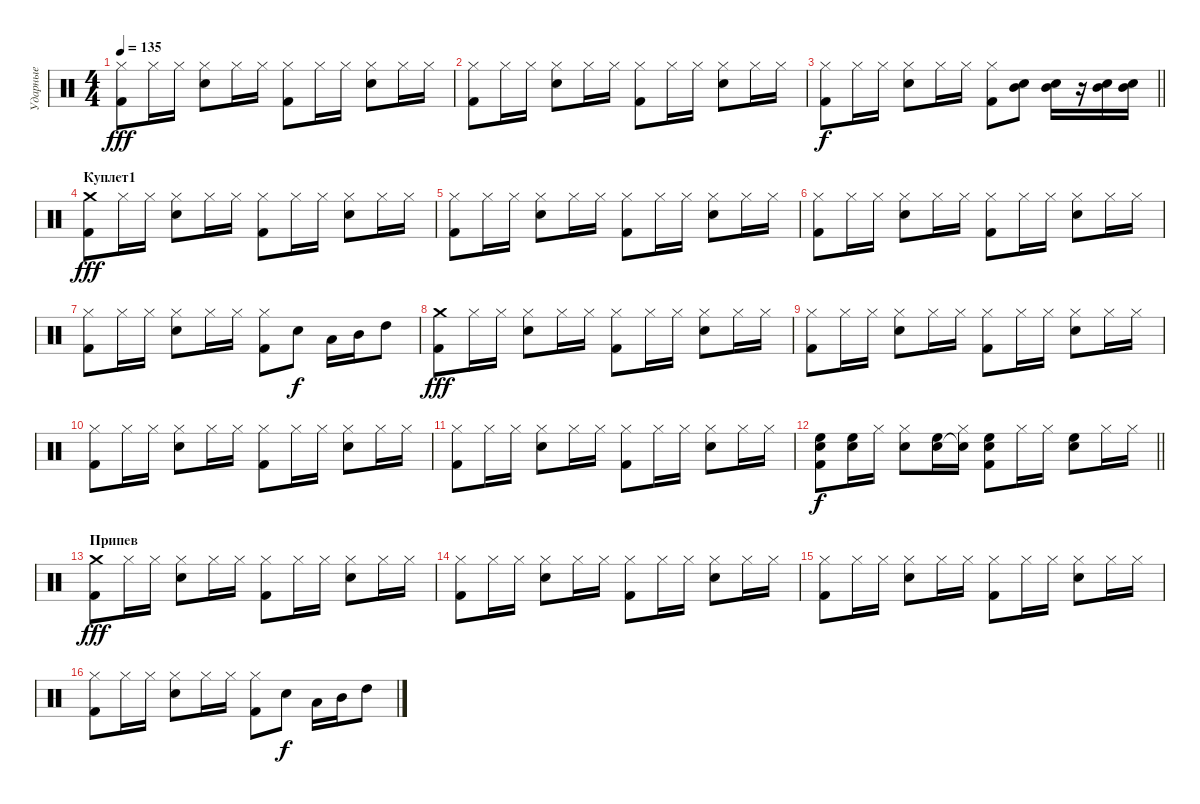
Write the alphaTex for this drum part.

\track ("Ударные" "Ударные") {instrument percussion}
\staff {score}
\articulation defaults
\ts (4 4)
\tempo 135
\clef neutral
\ks c
("Hi-Hat (closed)" "Kick (hit) 2").8{dy fff} "Hi-Hat (closed)".16 "Hi-Hat (closed)".16 ("Hi-Hat (closed)" "Electric Snare (hit)").8 "Hi-Hat (closed)".16 "Hi-Hat (closed)".16 ("Hi-Hat (closed)" "Kick (hit) 2").8 "Hi-Hat (closed)".16 "Hi-Hat (closed)".16 ("Hi-Hat (closed)" "Electric Snare (hit)").8 "Hi-Hat (closed)".16 "Hi-Hat (closed)".16 |
("Hi-Hat (closed)" "Kick (hit) 2").8 "Hi-Hat (closed)".16 "Hi-Hat (closed)".16 ("Hi-Hat (closed)" "Electric Snare (hit)").8 "Hi-Hat (closed)".16 "Hi-Hat (closed)".16 ("Hi-Hat (closed)" "Kick (hit) 2").8 "Hi-Hat (closed)".16 "Hi-Hat (closed)".16 ("Hi-Hat (closed)" "Electric Snare (hit)").8 "Hi-Hat (closed)".16 "Hi-Hat (closed)".16 |
\barLineRight lightlight
("Hi-Hat (closed)" "Kick (hit) 2").8{dy f} "Hi-Hat (closed)".16 "Hi-Hat (closed)".16 ("Hi-Hat (closed)" "Electric Snare (hit)").8 "Hi-Hat (closed)".16 "Hi-Hat (closed)".16 ("Hi-Hat (closed)" "Kick (hit) 2").8 ("Mid Tom (hit)" "Electric Snare (hit)").8 ("Mid Tom (hit)" "Electric Snare (hit)").16 r.16 ("Mid Tom (hit)" "Electric Snare (hit)").16 ("Mid Tom (hit)" "Electric Snare (hit)").16 |
\section ("" "Куплет1")
("Crash medium (hit)" "Kick (hit) 2").8{dy fff} "Hi-Hat (closed)".16 "Hi-Hat (closed)".16 ("Hi-Hat (closed)" "Electric Snare (hit)").8 "Hi-Hat (closed)".16 "Hi-Hat (closed)".16 ("Hi-Hat (closed)" "Kick (hit) 2").8 "Hi-Hat (closed)".16 "Hi-Hat (closed)".16 ("Hi-Hat (closed)" "Electric Snare (hit)").8 "Hi-Hat (closed)".16 "Hi-Hat (closed)".16 |
("Hi-Hat (closed)" "Kick (hit) 2").8 "Hi-Hat (closed)".16 "Hi-Hat (closed)".16 ("Hi-Hat (closed)" "Electric Snare (hit)").8 "Hi-Hat (closed)".16 "Hi-Hat (closed)".16 ("Hi-Hat (closed)" "Kick (hit) 2").8 "Hi-Hat (closed)".16 "Hi-Hat (closed)".16 ("Hi-Hat (closed)" "Electric Snare (hit)").8 "Hi-Hat (closed)".16 "Hi-Hat (closed)".16 |
("Hi-Hat (closed)" "Kick (hit) 2").8 "Hi-Hat (closed)".16 "Hi-Hat (closed)".16 ("Hi-Hat (closed)" "Electric Snare (hit)").8 "Hi-Hat (closed)".16 "Hi-Hat (closed)".16 ("Hi-Hat (closed)" "Kick (hit) 2").8 "Hi-Hat (closed)".16 "Hi-Hat (closed)".16 ("Hi-Hat (closed)" "Electric Snare (hit)").8 "Hi-Hat (closed)".16 "Hi-Hat (closed)".16 |
("Hi-Hat (closed)" "Kick (hit) 2").8 "Hi-Hat (closed)".16 "Hi-Hat (closed)".16 ("Hi-Hat (closed)" "Electric Snare (hit)").8 "Hi-Hat (closed)".16 "Hi-Hat (closed)".16 ("Hi-Hat (closed)" "Kick (hit) 2").8 "Electric Snare (hit)".8{dy f} "Low Tom (hit)".16 "Mid Tom (hit)".16 "High Tom (hit)".8 |
("Crash medium (hit)" "Kick (hit) 2").8{dy fff} "Hi-Hat (closed)".16 "Hi-Hat (closed)".16 ("Hi-Hat (closed)" "Electric Snare (hit)").8 "Hi-Hat (closed)".16 "Hi-Hat (closed)".16 ("Hi-Hat (closed)" "Kick (hit) 2").8 "Hi-Hat (closed)".16 "Hi-Hat (closed)".16 ("Hi-Hat (closed)" "Electric Snare (hit)").8 "Hi-Hat (closed)".16 "Hi-Hat (closed)".16 |
("Hi-Hat (closed)" "Kick (hit) 2").8 "Hi-Hat (closed)".16 "Hi-Hat (closed)".16 ("Hi-Hat (closed)" "Electric Snare (hit)").8 "Hi-Hat (closed)".16 "Hi-Hat (closed)".16 ("Hi-Hat (closed)" "Kick (hit) 2").8 "Hi-Hat (closed)".16 "Hi-Hat (closed)".16 ("Hi-Hat (closed)" "Electric Snare (hit)").8 "Hi-Hat (closed)".16 "Hi-Hat (closed)".16 |
("Hi-Hat (closed)" "Kick (hit) 2").8 "Hi-Hat (closed)".16 "Hi-Hat (closed)".16 ("Hi-Hat (closed)" "Electric Snare (hit)").8 "Hi-Hat (closed)".16 "Hi-Hat (closed)".16 ("Hi-Hat (closed)" "Kick (hit) 2").8 "Hi-Hat (closed)".16 "Hi-Hat (closed)".16 ("Hi-Hat (closed)" "Electric Snare (hit)").8 "Hi-Hat (closed)".16 "Hi-Hat (closed)".16 |
("Hi-Hat (closed)" "Kick (hit) 2").8 "Hi-Hat (closed)".16 "Hi-Hat (closed)".16 ("Hi-Hat (closed)" "Electric Snare (hit)").8 "Hi-Hat (closed)".16 "Hi-Hat (closed)".16 ("Hi-Hat (closed)" "Kick (hit) 2").8 "Hi-Hat (closed)".16 "Hi-Hat (closed)".16 ("Hi-Hat (closed)" "Electric Snare (hit)").8 "Hi-Hat (closed)".16 "Hi-Hat (closed)".16 |
\barLineRight lightlight
("High Floor Tom (hit)" "Electric Snare (hit)" "Kick (hit) 2").8{dy f} ("High Floor Tom (hit)" "Electric Snare (hit)").16 "Hi-Hat (closed)".16 ("Hi-Hat (closed)" "Electric Snare (hit)").8 ("High Floor Tom (hit)" "Electric Snare (hit)").16 ("Hi-Hat (closed)" "Snare (hit)"{t}).16 ("High Floor Tom (hit)" "Electric Snare (hit)" "Kick (hit) 2").8 "Hi-Hat (closed)".16 "Hi-Hat (closed)".16 ("High Floor Tom (hit)" "Electric Snare (hit)").8 "Hi-Hat (closed)".16 "Hi-Hat (closed)".16 |
\section ("" "Припев")
("Crash medium (hit)" "Kick (hit) 2").8{dy fff} "Hi-Hat (closed)".16 "Hi-Hat (closed)".16 ("Hi-Hat (closed)" "Electric Snare (hit)").8 "Hi-Hat (closed)".16 "Hi-Hat (closed)".16 ("Hi-Hat (closed)" "Kick (hit) 2").8 "Hi-Hat (closed)".16 "Hi-Hat (closed)".16 ("Hi-Hat (closed)" "Electric Snare (hit)").8 "Hi-Hat (closed)".16 "Hi-Hat (closed)".16 |
("Hi-Hat (closed)" "Kick (hit) 2").8 "Hi-Hat (closed)".16 "Hi-Hat (closed)".16 ("Hi-Hat (closed)" "Electric Snare (hit)").8 "Hi-Hat (closed)".16 "Hi-Hat (closed)".16 ("Hi-Hat (closed)" "Kick (hit) 2").8 "Hi-Hat (closed)".16 "Hi-Hat (closed)".16 ("Hi-Hat (closed)" "Electric Snare (hit)").8 "Hi-Hat (closed)".16 "Hi-Hat (closed)".16 |
("Hi-Hat (closed)" "Kick (hit) 2").8 "Hi-Hat (closed)".16 "Hi-Hat (closed)".16 ("Hi-Hat (closed)" "Electric Snare (hit)").8 "Hi-Hat (closed)".16 "Hi-Hat (closed)".16 ("Hi-Hat (closed)" "Kick (hit) 2").8 "Hi-Hat (closed)".16 "Hi-Hat (closed)".16 ("Hi-Hat (closed)" "Electric Snare (hit)").8 "Hi-Hat (closed)".16 "Hi-Hat (closed)".16 |
("Hi-Hat (closed)" "Kick (hit) 2").8 "Hi-Hat (closed)".16 "Hi-Hat (closed)".16 ("Hi-Hat (closed)" "Electric Snare (hit)").8 "Hi-Hat (closed)".16 "Hi-Hat (closed)".16 ("Hi-Hat (closed)" "Kick (hit) 2").8 "Electric Snare (hit)".8{dy f} "Low Tom (hit)".16 "Mid Tom (hit)".16 "High Tom (hit)".8
